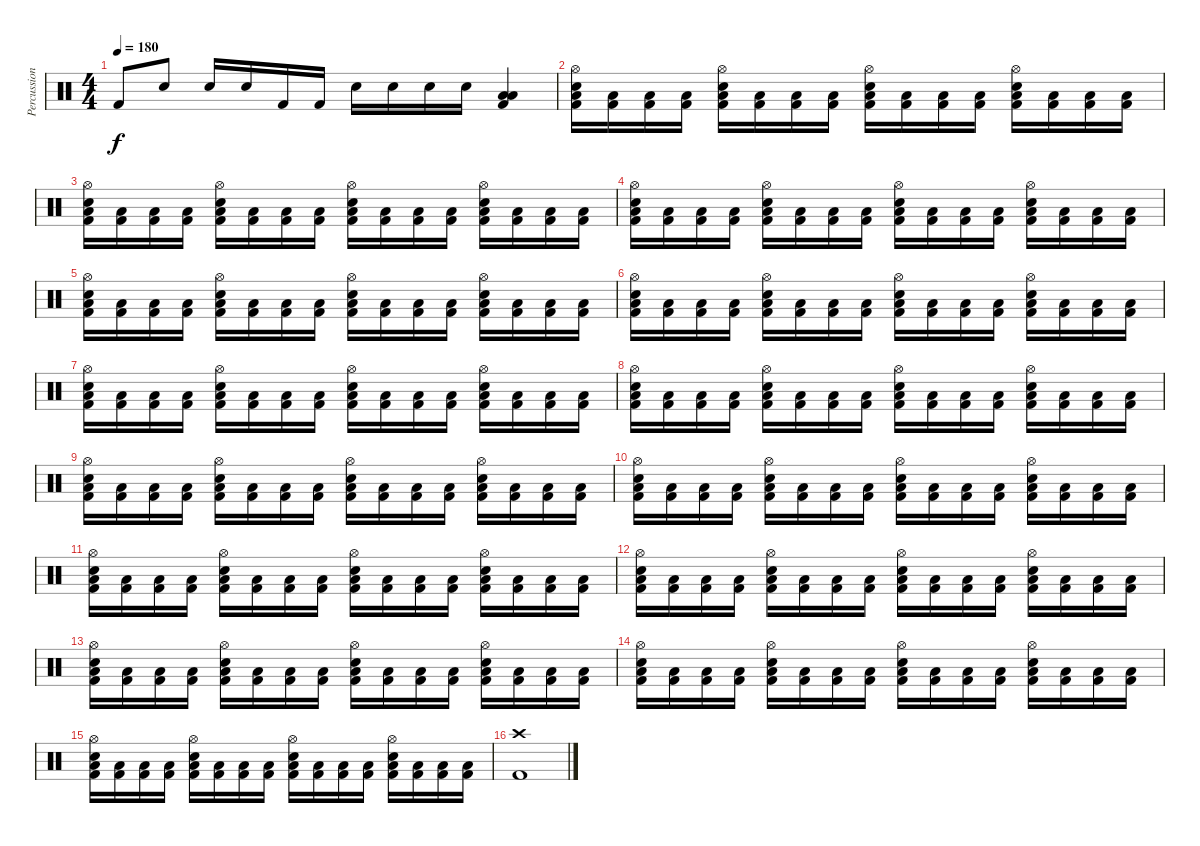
\track ("Percussion" "Percussion") {instrument percussion}
\staff {score}
\articulation defaults
\ts (4 4)
\tempo 180
\clef neutral
\ks c "Kick (hit) 2".8{dy f} "Snare (hit) 2".8 "Snare (hit) 2".16 "Snare (hit) 2".16 "Kick (hit) 2".16 "Kick (hit) 2".16 "Snare (hit) 2".16 "Snare (hit) 2".16 "Snare (hit) 2".16 "Snare (hit) 2".16
("Low Tom (hit)" "Low Floor Tom (hit)" "Kick (hit) 2").4 |
("Hi-Hat (open)" "Snare (hit) 2" "Low Floor Tom (hit)" "Kick (hit) 2").16 ("Low Floor Tom (hit)" "Kick (hit) 2").16 ("Low Floor Tom (hit)" "Kick (hit) 2").16 ("Low Floor Tom (hit)" "Kick (hit) 2").16 ("Hi-Hat (open)" "Snare (hit) 2" "Low Floor Tom (hit)" "Kick (hit) 2").16 ("Low Floor Tom (hit)" "Kick (hit) 2").16 ("Low Floor Tom (hit)" "Kick (hit) 2").16 ("Low Floor Tom (hit)" "Kick (hit) 2").16 ("Hi-Hat (open)" "Snare (hit) 2" "Low Floor Tom (hit)" "Kick (hit) 2").16 ("Low Floor Tom (hit)" "Kick (hit) 2").16 ("Low Floor Tom (hit)" "Kick (hit) 2").16 ("Low Floor Tom (hit)" "Kick (hit) 2").16 ("Hi-Hat (open)" "Snare (hit) 2" "Low Floor Tom (hit)" "Kick (hit) 2").16 ("Low Floor Tom (hit)" "Kick (hit) 2").16 ("Low Floor Tom (hit)" "Kick (hit) 2").16 ("Low Floor Tom (hit)" "Kick (hit) 2").16 |
("Hi-Hat (open)" "Snare (hit) 2" "Low Floor Tom (hit)" "Kick (hit) 2").16 ("Low Floor Tom (hit)" "Kick (hit) 2").16 ("Low Floor Tom (hit)" "Kick (hit) 2").16 ("Low Floor Tom (hit)" "Kick (hit) 2").16 ("Hi-Hat (open)" "Snare (hit) 2" "Low Floor Tom (hit)" "Kick (hit) 2").16 ("Low Floor Tom (hit)" "Kick (hit) 2").16 ("Low Floor Tom (hit)" "Kick (hit) 2").16 ("Low Floor Tom (hit)" "Kick (hit) 2").16 ("Hi-Hat (open)" "Snare (hit) 2" "Low Floor Tom (hit)" "Kick (hit) 2").16 ("Low Floor Tom (hit)" "Kick (hit) 2").16 ("Low Floor Tom (hit)" "Kick (hit) 2").16 ("Low Floor Tom (hit)" "Kick (hit) 2").16 ("Hi-Hat (open)" "Snare (hit) 2" "Low Floor Tom (hit)" "Kick (hit) 2").16 ("Low Floor Tom (hit)" "Kick (hit) 2").16 ("Low Floor Tom (hit)" "Kick (hit) 2").16 ("Low Floor Tom (hit)" "Kick (hit) 2").16 |
("Hi-Hat (open)" "Snare (hit) 2" "Low Floor Tom (hit)" "Kick (hit) 2").16 ("Low Floor Tom (hit)" "Kick (hit) 2").16 ("Low Floor Tom (hit)" "Kick (hit) 2").16 ("Low Floor Tom (hit)" "Kick (hit) 2").16 ("Hi-Hat (open)" "Snare (hit) 2" "Low Floor Tom (hit)" "Kick (hit) 2").16 ("Low Floor Tom (hit)" "Kick (hit) 2").16 ("Low Floor Tom (hit)" "Kick (hit) 2").16 ("Low Floor Tom (hit)" "Kick (hit) 2").16 ("Hi-Hat (open)" "Snare (hit) 2" "Low Floor Tom (hit)" "Kick (hit) 2").16 ("Low Floor Tom (hit)" "Kick (hit) 2").16 ("Low Floor Tom (hit)" "Kick (hit) 2").16 ("Low Floor Tom (hit)" "Kick (hit) 2").16 ("Hi-Hat (open)" "Snare (hit) 2" "Low Floor Tom (hit)" "Kick (hit) 2").16 ("Low Floor Tom (hit)" "Kick (hit) 2").16 ("Low Floor Tom (hit)" "Kick (hit) 2").16 ("Low Floor Tom (hit)" "Kick (hit) 2").16 |
("Hi-Hat (open)" "Snare (hit) 2" "Low Floor Tom (hit)" "Kick (hit) 2").16 ("Low Floor Tom (hit)" "Kick (hit) 2").16 ("Low Floor Tom (hit)" "Kick (hit) 2").16 ("Low Floor Tom (hit)" "Kick (hit) 2").16 ("Hi-Hat (open)" "Snare (hit) 2" "Low Floor Tom (hit)" "Kick (hit) 2").16 ("Low Floor Tom (hit)" "Kick (hit) 2").16 ("Low Floor Tom (hit)" "Kick (hit) 2").16 ("Low Floor Tom (hit)" "Kick (hit) 2").16 ("Hi-Hat (open)" "Snare (hit) 2" "Low Floor Tom (hit)" "Kick (hit) 2").16 ("Low Floor Tom (hit)" "Kick (hit) 2").16 ("Low Floor Tom (hit)" "Kick (hit) 2").16 ("Low Floor Tom (hit)" "Kick (hit) 2").16 ("Hi-Hat (open)" "Snare (hit) 2" "Low Floor Tom (hit)" "Kick (hit) 2").16 ("Low Floor Tom (hit)" "Kick (hit) 2").16 ("Low Floor Tom (hit)" "Kick (hit) 2").16 ("Low Floor Tom (hit)" "Kick (hit) 2").16 |
("Hi-Hat (open)" "Snare (hit) 2" "Low Floor Tom (hit)" "Kick (hit) 2").16 ("Low Floor Tom (hit)" "Kick (hit) 2").16 ("Low Floor Tom (hit)" "Kick (hit) 2").16 ("Low Floor Tom (hit)" "Kick (hit) 2").16 ("Hi-Hat (open)" "Snare (hit) 2" "Low Floor Tom (hit)" "Kick (hit) 2").16 ("Low Floor Tom (hit)" "Kick (hit) 2").16 ("Low Floor Tom (hit)" "Kick (hit) 2").16 ("Low Floor Tom (hit)" "Kick (hit) 2").16 ("Hi-Hat (open)" "Snare (hit) 2" "Low Floor Tom (hit)" "Kick (hit) 2").16 ("Low Floor Tom (hit)" "Kick (hit) 2").16 ("Low Floor Tom (hit)" "Kick (hit) 2").16 ("Low Floor Tom (hit)" "Kick (hit) 2").16 ("Hi-Hat (open)" "Snare (hit) 2" "Low Floor Tom (hit)" "Kick (hit) 2").16 ("Low Floor Tom (hit)" "Kick (hit) 2").16 ("Low Floor Tom (hit)" "Kick (hit) 2").16 ("Low Floor Tom (hit)" "Kick (hit) 2").16 |
("Hi-Hat (open)" "Snare (hit) 2" "Low Floor Tom (hit)" "Kick (hit) 2").16 ("Low Floor Tom (hit)" "Kick (hit) 2").16 ("Low Floor Tom (hit)" "Kick (hit) 2").16 ("Low Floor Tom (hit)" "Kick (hit) 2").16 ("Hi-Hat (open)" "Snare (hit) 2" "Low Floor Tom (hit)" "Kick (hit) 2").16 ("Low Floor Tom (hit)" "Kick (hit) 2").16 ("Low Floor Tom (hit)" "Kick (hit) 2").16 ("Low Floor Tom (hit)" "Kick (hit) 2").16 ("Hi-Hat (open)" "Snare (hit) 2" "Low Floor Tom (hit)" "Kick (hit) 2").16 ("Low Floor Tom (hit)" "Kick (hit) 2").16 ("Low Floor Tom (hit)" "Kick (hit) 2").16 ("Low Floor Tom (hit)" "Kick (hit) 2").16 ("Hi-Hat (open)" "Snare (hit) 2" "Low Floor Tom (hit)" "Kick (hit) 2").16 ("Low Floor Tom (hit)" "Kick (hit) 2").16 ("Low Floor Tom (hit)" "Kick (hit) 2").16 ("Low Floor Tom (hit)" "Kick (hit) 2").16 |
("Hi-Hat (open)" "Snare (hit) 2" "Low Floor Tom (hit)" "Kick (hit) 2").16 ("Low Floor Tom (hit)" "Kick (hit) 2").16 ("Low Floor Tom (hit)" "Kick (hit) 2").16 ("Low Floor Tom (hit)" "Kick (hit) 2").16 ("Hi-Hat (open)" "Snare (hit) 2" "Low Floor Tom (hit)" "Kick (hit) 2").16 ("Low Floor Tom (hit)" "Kick (hit) 2").16 ("Low Floor Tom (hit)" "Kick (hit) 2").16 ("Low Floor Tom (hit)" "Kick (hit) 2").16 ("Hi-Hat (open)" "Snare (hit) 2" "Low Floor Tom (hit)" "Kick (hit) 2").16 ("Low Floor Tom (hit)" "Kick (hit) 2").16 ("Low Floor Tom (hit)" "Kick (hit) 2").16 ("Low Floor Tom (hit)" "Kick (hit) 2").16 ("Hi-Hat (open)" "Snare (hit) 2" "Low Floor Tom (hit)" "Kick (hit) 2").16 ("Low Floor Tom (hit)" "Kick (hit) 2").16 ("Low Floor Tom (hit)" "Kick (hit) 2").16 ("Low Floor Tom (hit)" "Kick (hit) 2").16 |
("Hi-Hat (open)" "Snare (hit) 2" "Low Floor Tom (hit)" "Kick (hit) 2").16 ("Low Floor Tom (hit)" "Kick (hit) 2").16 ("Low Floor Tom (hit)" "Kick (hit) 2").16 ("Low Floor Tom (hit)" "Kick (hit) 2").16 ("Hi-Hat (open)" "Snare (hit) 2" "Low Floor Tom (hit)" "Kick (hit) 2").16 ("Low Floor Tom (hit)" "Kick (hit) 2").16 ("Low Floor Tom (hit)" "Kick (hit) 2").16 ("Low Floor Tom (hit)" "Kick (hit) 2").16 ("Hi-Hat (open)" "Snare (hit) 2" "Low Floor Tom (hit)" "Kick (hit) 2").16 ("Low Floor Tom (hit)" "Kick (hit) 2").16 ("Low Floor Tom (hit)" "Kick (hit) 2").16 ("Low Floor Tom (hit)" "Kick (hit) 2").16 ("Hi-Hat (open)" "Snare (hit) 2" "Low Floor Tom (hit)" "Kick (hit) 2").16 ("Low Floor Tom (hit)" "Kick (hit) 2").16 ("Low Floor Tom (hit)" "Kick (hit) 2").16 ("Low Floor Tom (hit)" "Kick (hit) 2").16 |
("Hi-Hat (open)" "Snare (hit) 2" "Low Floor Tom (hit)" "Kick (hit) 2").16 ("Low Floor Tom (hit)" "Kick (hit) 2").16 ("Low Floor Tom (hit)" "Kick (hit) 2").16 ("Low Floor Tom (hit)" "Kick (hit) 2").16 ("Hi-Hat (open)" "Snare (hit) 2" "Low Floor Tom (hit)" "Kick (hit) 2").16 ("Low Floor Tom (hit)" "Kick (hit) 2").16 ("Low Floor Tom (hit)" "Kick (hit) 2").16 ("Low Floor Tom (hit)" "Kick (hit) 2").16 ("Hi-Hat (open)" "Snare (hit) 2" "Low Floor Tom (hit)" "Kick (hit) 2").16 ("Low Floor Tom (hit)" "Kick (hit) 2").16 ("Low Floor Tom (hit)" "Kick (hit) 2").16 ("Low Floor Tom (hit)" "Kick (hit) 2").16 ("Hi-Hat (open)" "Snare (hit) 2" "Low Floor Tom (hit)" "Kick (hit) 2").16 ("Low Floor Tom (hit)" "Kick (hit) 2").16 ("Low Floor Tom (hit)" "Kick (hit) 2").16 ("Low Floor Tom (hit)" "Kick (hit) 2").16 |
("Hi-Hat (open)" "Snare (hit) 2" "Low Floor Tom (hit)" "Kick (hit) 2").16 ("Low Floor Tom (hit)" "Kick (hit) 2").16 ("Low Floor Tom (hit)" "Kick (hit) 2").16 ("Low Floor Tom (hit)" "Kick (hit) 2").16 ("Hi-Hat (open)" "Snare (hit) 2" "Low Floor Tom (hit)" "Kick (hit) 2").16 ("Low Floor Tom (hit)" "Kick (hit) 2").16 ("Low Floor Tom (hit)" "Kick (hit) 2").16 ("Low Floor Tom (hit)" "Kick (hit) 2").16 ("Hi-Hat (open)" "Snare (hit) 2" "Low Floor Tom (hit)" "Kick (hit) 2").16 ("Low Floor Tom (hit)" "Kick (hit) 2").16 ("Low Floor Tom (hit)" "Kick (hit) 2").16 ("Low Floor Tom (hit)" "Kick (hit) 2").16 ("Hi-Hat (open)" "Snare (hit) 2" "Low Floor Tom (hit)" "Kick (hit) 2").16 ("Low Floor Tom (hit)" "Kick (hit) 2").16 ("Low Floor Tom (hit)" "Kick (hit) 2").16 ("Low Floor Tom (hit)" "Kick (hit) 2").16 |
("Hi-Hat (open)" "Snare (hit) 2" "Low Floor Tom (hit)" "Kick (hit) 2").16 ("Low Floor Tom (hit)" "Kick (hit) 2").16 ("Low Floor Tom (hit)" "Kick (hit) 2").16 ("Low Floor Tom (hit)" "Kick (hit) 2").16 ("Hi-Hat (open)" "Snare (hit) 2" "Low Floor Tom (hit)" "Kick (hit) 2").16 ("Low Floor Tom (hit)" "Kick (hit) 2").16 ("Low Floor Tom (hit)" "Kick (hit) 2").16 ("Low Floor Tom (hit)" "Kick (hit) 2").16 ("Hi-Hat (open)" "Snare (hit) 2" "Low Floor Tom (hit)" "Kick (hit) 2").16 ("Low Floor Tom (hit)" "Kick (hit) 2").16 ("Low Floor Tom (hit)" "Kick (hit) 2").16 ("Low Floor Tom (hit)" "Kick (hit) 2").16 ("Hi-Hat (open)" "Snare (hit) 2" "Low Floor Tom (hit)" "Kick (hit) 2").16 ("Low Floor Tom (hit)" "Kick (hit) 2").16 ("Low Floor Tom (hit)" "Kick (hit) 2").16 ("Low Floor Tom (hit)" "Kick (hit) 2").16 |
("Hi-Hat (open)" "Snare (hit) 2" "Low Floor Tom (hit)" "Kick (hit) 2").16 ("Low Floor Tom (hit)" "Kick (hit) 2").16 ("Low Floor Tom (hit)" "Kick (hit) 2").16 ("Low Floor Tom (hit)" "Kick (hit) 2").16 ("Hi-Hat (open)" "Snare (hit) 2" "Low Floor Tom (hit)" "Kick (hit) 2").16 ("Low Floor Tom (hit)" "Kick (hit) 2").16 ("Low Floor Tom (hit)" "Kick (hit) 2").16 ("Low Floor Tom (hit)" "Kick (hit) 2").16 ("Hi-Hat (open)" "Snare (hit) 2" "Low Floor Tom (hit)" "Kick (hit) 2").16 ("Low Floor Tom (hit)" "Kick (hit) 2").16 ("Low Floor Tom (hit)" "Kick (hit) 2").16 ("Low Floor Tom (hit)" "Kick (hit) 2").16 ("Hi-Hat (open)" "Snare (hit) 2" "Low Floor Tom (hit)" "Kick (hit) 2").16 ("Low Floor Tom (hit)" "Kick (hit) 2").16 ("Low Floor Tom (hit)" "Kick (hit) 2").16 ("Low Floor Tom (hit)" "Kick (hit) 2").16 |
("Hi-Hat (open)" "Snare (hit) 2" "Low Floor Tom (hit)" "Kick (hit) 2").16 ("Low Floor Tom (hit)" "Kick (hit) 2").16 ("Low Floor Tom (hit)" "Kick (hit) 2").16 ("Low Floor Tom (hit)" "Kick (hit) 2").16 ("Hi-Hat (open)" "Snare (hit) 2" "Low Floor Tom (hit)" "Kick (hit) 2").16 ("Low Floor Tom (hit)" "Kick (hit) 2").16 ("Low Floor Tom (hit)" "Kick (hit) 2").16 ("Low Floor Tom (hit)" "Kick (hit) 2").16 ("Hi-Hat (open)" "Snare (hit) 2" "Low Floor Tom (hit)" "Kick (hit) 2").16 ("Low Floor Tom (hit)" "Kick (hit) 2").16 ("Low Floor Tom (hit)" "Kick (hit) 2").16 ("Low Floor Tom (hit)" "Kick (hit) 2").16 ("Hi-Hat (open)" "Snare (hit) 2" "Low Floor Tom (hit)" "Kick (hit) 2").16 ("Low Floor Tom (hit)" "Kick (hit) 2").16 ("Low Floor Tom (hit)" "Kick (hit) 2").16 ("Low Floor Tom (hit)" "Kick (hit) 2").16 |
("Hi-Hat (open)" "Snare (hit) 2" "Low Floor Tom (hit)" "Kick (hit) 2").16 ("Low Floor Tom (hit)" "Kick (hit) 2").16 ("Low Floor Tom (hit)" "Kick (hit) 2").16 ("Low Floor Tom (hit)" "Kick (hit) 2").16 ("Hi-Hat (open)" "Snare (hit) 2" "Low Floor Tom (hit)" "Kick (hit) 2").16 ("Low Floor Tom (hit)" "Kick (hit) 2").16 ("Low Floor Tom (hit)" "Kick (hit) 2").16 ("Low Floor Tom (hit)" "Kick (hit) 2").16 ("Hi-Hat (open)" "Snare (hit) 2" "Low Floor Tom (hit)" "Kick (hit) 2").16 ("Low Floor Tom (hit)" "Kick (hit) 2").16 ("Low Floor Tom (hit)" "Kick (hit) 2").16 ("Low Floor Tom (hit)" "Kick (hit) 2").16 ("Hi-Hat (open)" "Snare (hit) 2" "Low Floor Tom (hit)" "Kick (hit) 2").16 ("Low Floor Tom (hit)" "Kick (hit) 2").16 ("Low Floor Tom (hit)" "Kick (hit) 2").16 ("Low Floor Tom (hit)" "Kick (hit) 2").16 |
("Crash high (hit)" "Kick (hit) 2").1
